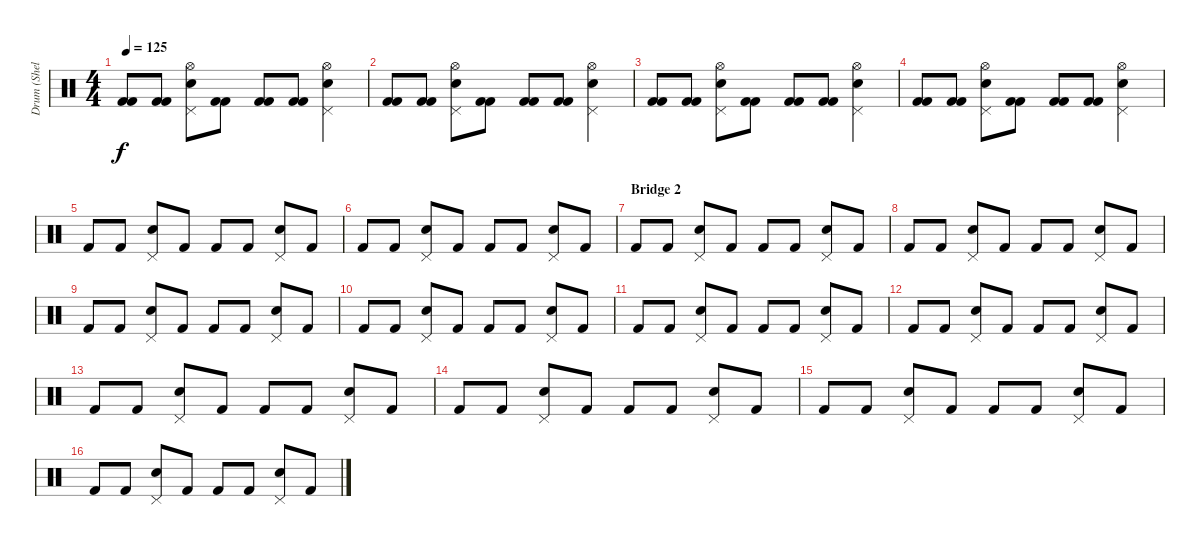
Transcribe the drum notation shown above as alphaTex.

\track ("Drum (Shelley)" "Drum (Shel") {instrument percussion}
\staff {score}
\articulation defaults
\ts (4 4)
\tempo 125
\clef neutral
\ks c
("Kick (hit) 2" "Kick (hit) 2").8{dy f} ("Kick (hit) 2" "Kick (hit) 2").8 ("Pedal Hi-Hat (hit)" "Electric Snare (hit)" "Hi-Hat (open)").8 ("Kick (hit) 2" "Kick (hit) 2").8 ("Kick (hit) 2" "Kick (hit) 2").8 ("Kick (hit) 2" "Kick (hit) 2").8 ("Pedal Hi-Hat (hit)" "Electric Snare (hit)" "Hi-Hat (open)").4 |
("Kick (hit) 2" "Kick (hit) 2").8 ("Kick (hit) 2" "Kick (hit) 2").8 ("Pedal Hi-Hat (hit)" "Electric Snare (hit)" "Hi-Hat (open)").8 ("Kick (hit) 2" "Kick (hit) 2").8 ("Kick (hit) 2" "Kick (hit) 2").8 ("Kick (hit) 2" "Kick (hit) 2").8 ("Pedal Hi-Hat (hit)" "Electric Snare (hit)" "Hi-Hat (open)").4 |
("Kick (hit) 2" "Kick (hit) 2").8 ("Kick (hit) 2" "Kick (hit) 2").8 ("Pedal Hi-Hat (hit)" "Electric Snare (hit)" "Hi-Hat (open)").8 ("Kick (hit) 2" "Kick (hit) 2").8 ("Kick (hit) 2" "Kick (hit) 2").8 ("Kick (hit) 2" "Kick (hit) 2").8 ("Pedal Hi-Hat (hit)" "Electric Snare (hit)" "Hi-Hat (open)").4 |
("Kick (hit) 2" "Kick (hit) 2").8 ("Kick (hit) 2" "Kick (hit) 2").8 ("Pedal Hi-Hat (hit)" "Electric Snare (hit)" "Hi-Hat (open)").8 ("Kick (hit) 2" "Kick (hit) 2").8 ("Kick (hit) 2" "Kick (hit) 2").8 ("Kick (hit) 2" "Kick (hit) 2").8 ("Pedal Hi-Hat (hit)" "Electric Snare (hit)" "Hi-Hat (open)").4 |
"Kick (hit) 2".8 "Kick (hit) 2".8 ("Pedal Hi-Hat (hit)" "Electric Snare (hit)").8 "Kick (hit) 2".8 "Kick (hit) 2".8 "Kick (hit) 2".8 ("Pedal Hi-Hat (hit)" "Electric Snare (hit)").8 "Kick (hit) 2".8 |
"Kick (hit) 2".8 "Kick (hit) 2".8 ("Pedal Hi-Hat (hit)" "Electric Snare (hit)").8 "Kick (hit) 2".8 "Kick (hit) 2".8 "Kick (hit) 2".8 ("Pedal Hi-Hat (hit)" "Electric Snare (hit)").8 "Kick (hit) 2".8 |
\section ("" "Bridge 2")
"Kick (hit) 2".8 "Kick (hit) 2".8 ("Pedal Hi-Hat (hit)" "Electric Snare (hit)").8 "Kick (hit) 2".8 "Kick (hit) 2".8 "Kick (hit) 2".8 ("Pedal Hi-Hat (hit)" "Electric Snare (hit)").8 "Kick (hit) 2".8 |
"Kick (hit) 2".8 "Kick (hit) 2".8 ("Pedal Hi-Hat (hit)" "Electric Snare (hit)").8 "Kick (hit) 2".8 "Kick (hit) 2".8 "Kick (hit) 2".8 ("Pedal Hi-Hat (hit)" "Electric Snare (hit)").8 "Kick (hit) 2".8 |
"Kick (hit) 2".8 "Kick (hit) 2".8 ("Pedal Hi-Hat (hit)" "Electric Snare (hit)").8 "Kick (hit) 2".8 "Kick (hit) 2".8 "Kick (hit) 2".8 ("Pedal Hi-Hat (hit)" "Electric Snare (hit)").8 "Kick (hit) 2".8 |
"Kick (hit) 2".8 "Kick (hit) 2".8 ("Pedal Hi-Hat (hit)" "Electric Snare (hit)").8 "Kick (hit) 2".8 "Kick (hit) 2".8 "Kick (hit) 2".8 ("Pedal Hi-Hat (hit)" "Electric Snare (hit)").8 "Kick (hit) 2".8 |
"Kick (hit) 2".8 "Kick (hit) 2".8 ("Pedal Hi-Hat (hit)" "Electric Snare (hit)").8 "Kick (hit) 2".8 "Kick (hit) 2".8 "Kick (hit) 2".8 ("Pedal Hi-Hat (hit)" "Electric Snare (hit)").8 "Kick (hit) 2".8 |
"Kick (hit) 2".8 "Kick (hit) 2".8 ("Pedal Hi-Hat (hit)" "Electric Snare (hit)").8 "Kick (hit) 2".8 "Kick (hit) 2".8 "Kick (hit) 2".8 ("Pedal Hi-Hat (hit)" "Electric Snare (hit)").8 "Kick (hit) 2".8 |
"Kick (hit) 2".8 "Kick (hit) 2".8 ("Pedal Hi-Hat (hit)" "Electric Snare (hit)").8 "Kick (hit) 2".8 "Kick (hit) 2".8 "Kick (hit) 2".8 ("Pedal Hi-Hat (hit)" "Electric Snare (hit)").8 "Kick (hit) 2".8 |
"Kick (hit) 2".8 "Kick (hit) 2".8 ("Pedal Hi-Hat (hit)" "Electric Snare (hit)").8 "Kick (hit) 2".8 "Kick (hit) 2".8 "Kick (hit) 2".8 ("Pedal Hi-Hat (hit)" "Electric Snare (hit)").8 "Kick (hit) 2".8 |
"Kick (hit) 2".8 "Kick (hit) 2".8 ("Pedal Hi-Hat (hit)" "Electric Snare (hit)").8 "Kick (hit) 2".8 "Kick (hit) 2".8 "Kick (hit) 2".8 ("Pedal Hi-Hat (hit)" "Electric Snare (hit)").8 "Kick (hit) 2".8 |
"Kick (hit) 2".8 "Kick (hit) 2".8 ("Pedal Hi-Hat (hit)" "Electric Snare (hit)").8 "Kick (hit) 2".8 "Kick (hit) 2".8 "Kick (hit) 2".8 ("Pedal Hi-Hat (hit)" "Electric Snare (hit)").8 "Kick (hit) 2".8
